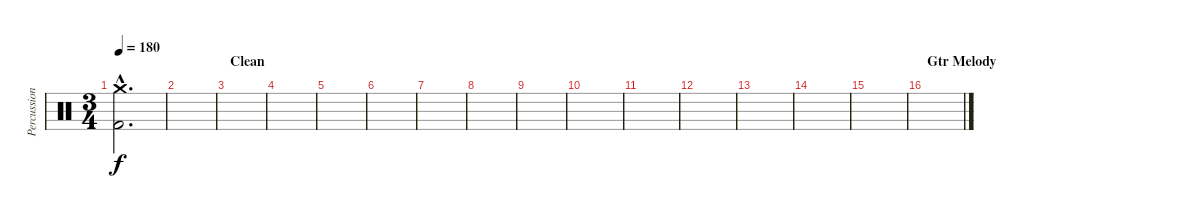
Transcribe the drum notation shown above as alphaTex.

\track ("Percussions" "Percussion") {instrument percussion}
\staff {score}
\articulation defaults
\ts (3 4)
\tempo 180
\clef neutral
\ks c
("Crash medium (hit)"{hac} "Kick (hit) 2"{hac}).2{d dy f} |
|
\section ("" "Clean")
|
|
|
|
|
|
|
|
|
|
|
|
|
\section ("" "Gtr Melody")
